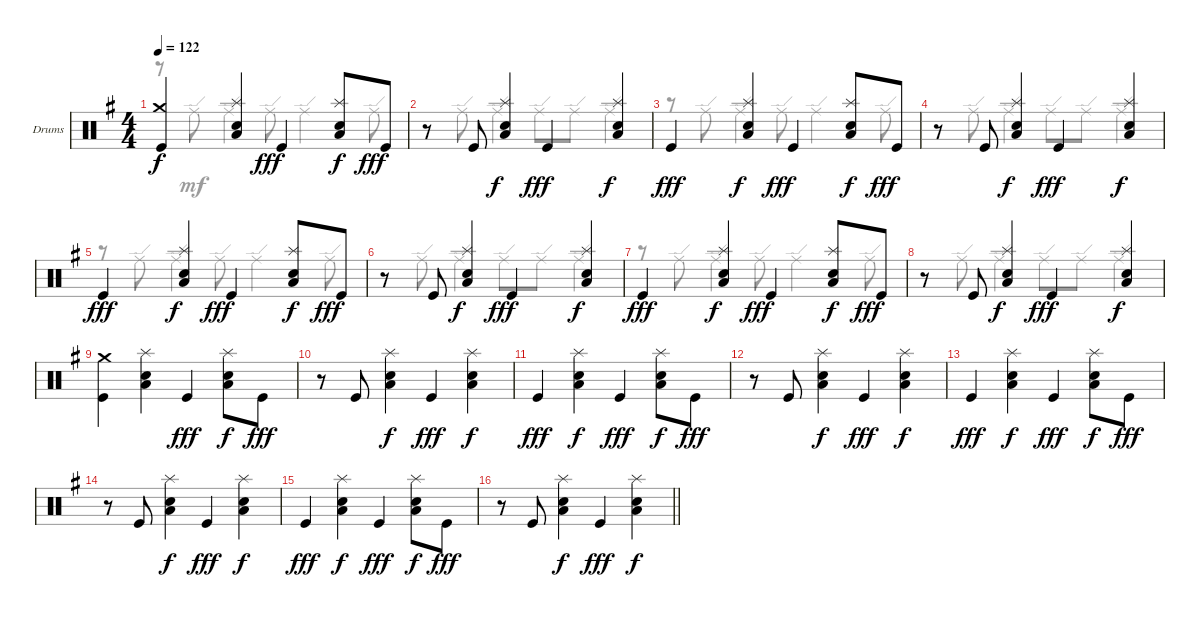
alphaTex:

\bracketExtendMode groupsimilarinstruments
\firstSystemTrackNameOrientation horizontal
\otherSystemsTrackNameOrientation horizontal
\track ("Drumkit" "Drums") {instrument percussion}
\staff {score}
\articulation defaults
\voice
\ts (4 4)
\tempo 122
\clef neutral
\ks g
("Crash medium (hit)" "Kick (hit)").4{dy f} ("Splash (hit)" "Low Tom (hit)" "Snare (hit) 2").4 "Kick (hit)".4{dy fff} ("Splash (hit)" "Low Tom (hit)" "Snare (hit) 2").8{dy f} "Kick (hit)".8{dy fff} |
r.8 "Kick (hit)".8 ("Splash (hit)" "Low Tom (hit)" "Snare (hit) 2").4{dy f} "Kick (hit)".4{dy fff} ("Splash (hit)" "Low Tom (hit)" "Snare (hit) 2").4{dy f} |
"Kick (hit)".4{dy fff} ("Splash (hit)" "Low Tom (hit)" "Snare (hit) 2").4{dy f} "Kick (hit)".4{dy fff} ("Splash (hit)" "Low Tom (hit)" "Snare (hit) 2").8{dy f} "Kick (hit)".8{dy fff} |
r.8 "Kick (hit)".8 ("Splash (hit)" "Low Tom (hit)" "Snare (hit) 2").4{dy f} "Kick (hit)".4{dy fff} ("Splash (hit)" "Low Tom (hit)" "Snare (hit) 2").4{dy f} |
"Kick (hit)".4{dy fff} ("Splash (hit)" "Low Tom (hit)" "Snare (hit) 2").4{dy f} "Kick (hit)".4{dy fff} ("Splash (hit)" "Low Tom (hit)" "Snare (hit) 2").8{dy f} "Kick (hit)".8{dy fff} |
r.8 "Kick (hit)".8 ("Splash (hit)" "Low Tom (hit)" "Snare (hit) 2").4{dy f} "Kick (hit)".4{dy fff} ("Splash (hit)" "Low Tom (hit)" "Snare (hit) 2").4{dy f} |
"Kick (hit)".4{dy fff} ("Splash (hit)" "Low Tom (hit)" "Snare (hit) 2").4{dy f} "Kick (hit)".4{dy fff} ("Splash (hit)" "Low Tom (hit)" "Snare (hit) 2").8{dy f} "Kick (hit)".8{dy fff} |
r.8 "Kick (hit)".8 ("Splash (hit)" "Low Tom (hit)" "Snare (hit) 2").4{dy f} "Kick (hit)".4{dy fff} ("Splash (hit)" "Low Tom (hit)" "Snare (hit) 2").4{dy f} |
("Crash medium (hit)" "Kick (hit)").4 ("Splash (hit)" "Low Tom (hit)" "Snare (hit) 2").4 "Kick (hit)".4{dy fff} ("Splash (hit)" "Low Tom (hit)" "Snare (hit) 2").8{dy f} "Kick (hit)".8{dy fff} |
r.8 "Kick (hit)".8 ("Splash (hit)" "Low Tom (hit)" "Snare (hit) 2").4{dy f} "Kick (hit)".4{dy fff} ("Splash (hit)" "Low Tom (hit)" "Snare (hit) 2").4{dy f} |
"Kick (hit)".4{dy fff} ("Splash (hit)" "Low Tom (hit)" "Snare (hit) 2").4{dy f} "Kick (hit)".4{dy fff} ("Splash (hit)" "Low Tom (hit)" "Snare (hit) 2").8{dy f} "Kick (hit)".8{dy fff} |
r.8 "Kick (hit)".8 ("Splash (hit)" "Low Tom (hit)" "Snare (hit) 2").4{dy f} "Kick (hit)".4{dy fff} ("Splash (hit)" "Low Tom (hit)" "Snare (hit) 2").4{dy f} |
"Kick (hit)".4{dy fff} ("Splash (hit)" "Low Tom (hit)" "Snare (hit) 2").4{dy f} "Kick (hit)".4{dy fff} ("Splash (hit)" "Low Tom (hit)" "Snare (hit) 2").8{dy f} "Kick (hit)".8{dy fff} |
r.8 "Kick (hit)".8 ("Splash (hit)" "Low Tom (hit)" "Snare (hit) 2").4{dy f} "Kick (hit)".4{dy fff} ("Splash (hit)" "Low Tom (hit)" "Snare (hit) 2").4{dy f} |
"Kick (hit)".4{dy fff} ("Splash (hit)" "Low Tom (hit)" "Snare (hit) 2").4{dy f} "Kick (hit)".4{dy fff} ("Splash (hit)" "Low Tom (hit)" "Snare (hit) 2").8{dy f} "Kick (hit)".8{dy fff} |
\barLineRight lightlight
r.8 "Kick (hit)".8 ("Splash (hit)" "Low Tom (hit)" "Snare (hit) 2").4{dy f} "Kick (hit)".4{dy fff} ("Splash (hit)" "Low Tom (hit)" "Snare (hit) 2").4{dy f}
\voice
\clef neutral
\ottava regular
\simile none
\ks g
r.8{dy mf} "Ride (edge)".8 "Ride (edge)".4 "Ride (edge)".8 "Ride (edge)".4 "Ride (edge)".8 |
r.8 "Ride (edge)".8 "Ride (edge)".4 "Ride (edge)".8 "Ride (edge)".8 "Ride (edge)".4 |
r.8 "Ride (edge)".8 "Ride (edge)".4 "Ride (edge)".8 "Ride (edge)".4 "Ride (edge)".8 |
r.8 "Ride (edge)".8 "Ride (edge)".4 "Ride (edge)".8 "Ride (edge)".8 "Ride (edge)".4 |
r.8 "Ride (edge)".8 "Ride (edge)".4 "Ride (edge)".8 "Ride (edge)".4 "Ride (edge)".8 |
r.8 "Ride (edge)".8 "Ride (edge)".4 "Ride (edge)".8 "Ride (edge)".8 "Ride (edge)".4 |
r.8 "Ride (edge)".8 "Ride (edge)".4 "Ride (edge)".8 "Ride (edge)".4 "Ride (edge)".8 |
r.8 "Ride (edge)".8 "Ride (edge)".4 "Ride (edge)".8 "Ride (edge)".8 "Ride (edge)".4 |
|
|
|
|
|
|
|
\barLineRight lightlight
